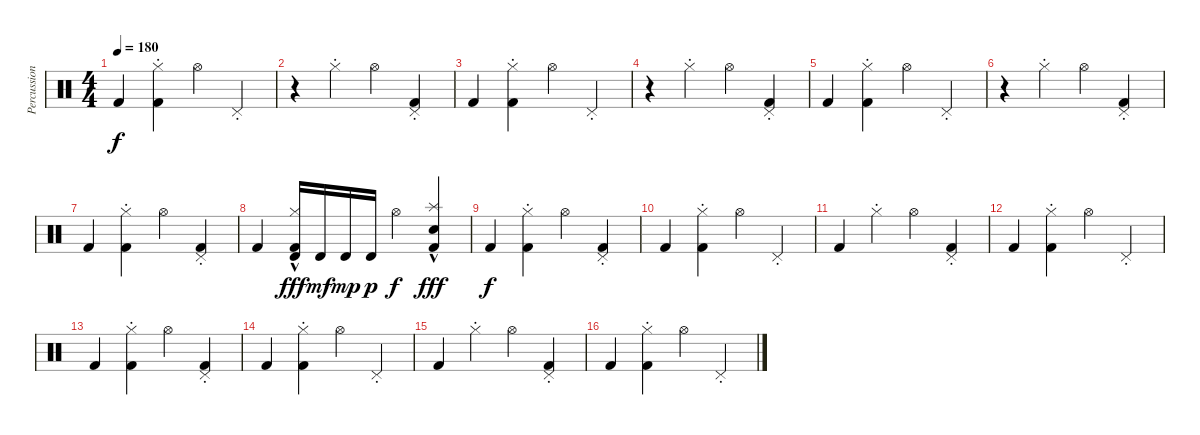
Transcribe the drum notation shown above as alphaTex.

\track ("Percussion" "Percussion") {instrument percussion}
\staff {score}
\articulation defaults
\ts (4 4)
\tempo 180
\clef neutral
\ks c "Kick (hit) 2".4{dy f}
("Hi-Hat (closed)"{st} "Kick (hit) 2").4 "Hi-Hat (open)".4 "Pedal Hi-Hat (hit)"{st}.4 |
r.4 "Hi-Hat (closed)"{st}.4 "Hi-Hat (open)".4 ("Pedal Hi-Hat (hit)"{st} "Kick (hit) 2").4 |
"Kick (hit) 2".4 ("Hi-Hat (closed)"{st} "Kick (hit) 2").4 "Hi-Hat (open)".4 "Pedal Hi-Hat (hit)"{st}.4 |
r.4 "Hi-Hat (closed)"{st}.4 "Hi-Hat (open)".4 ("Pedal Hi-Hat (hit)"{st} "Kick (hit) 2").4 |
"Kick (hit) 2".4 ("Hi-Hat (closed)"{st} "Kick (hit) 2").4 "Hi-Hat (open)".4 "Pedal Hi-Hat (hit)"{st}.4 |
r.4 "Hi-Hat (closed)"{st}.4 "Hi-Hat (open)".4 ("Pedal Hi-Hat (hit)"{st} "Kick (hit) 2").4 |
"Kick (hit) 2".4 ("Hi-Hat (closed)"{st} "Kick (hit) 2").4 "Hi-Hat (open)".4 ("Pedal Hi-Hat (hit)"{st} "Kick (hit) 2").4 |
"Kick (hit) 2".4 ("Hi-Hat (closed)" "Timbale high (hit)"{hac} "Kick (hit) 2").16{dy fff} "Timbale high (hit)".16{dy mf} "Timbale high (hit)".16{dy mp} "Timbale high (hit)".16{dy p} "Hi-Hat (open)".4{dy f} ("Splash (hit)"{hac} "Electric Snare (hit)" "Kick (hit) 2").4{dy fff} |
"Kick (hit) 2".4{dy f} ("Hi-Hat (closed)"{st} "Kick (hit) 2").4 "Hi-Hat (open)".4 ("Pedal Hi-Hat (hit)"{st} "Kick (hit) 2").4 |
"Kick (hit) 2".4 ("Hi-Hat (closed)"{st} "Kick (hit) 2").4 "Hi-Hat (open)".4 "Pedal Hi-Hat (hit)"{st}.4 |
"Kick (hit) 2".4 "Hi-Hat (closed)"{st}.4 "Hi-Hat (open)".4 ("Pedal Hi-Hat (hit)"{st} "Kick (hit) 2").4 |
"Kick (hit) 2".4 ("Hi-Hat (closed)"{st} "Kick (hit) 2").4 "Hi-Hat (open)".4 "Pedal Hi-Hat (hit)"{st}.4 |
"Kick (hit) 2".4 ("Hi-Hat (closed)"{st} "Kick (hit) 2").4 "Hi-Hat (open)".4 ("Pedal Hi-Hat (hit)"{st} "Kick (hit) 2").4 |
"Kick (hit) 2".4 ("Hi-Hat (closed)"{st} "Kick (hit) 2").4 "Hi-Hat (open)".4 "Pedal Hi-Hat (hit)"{st}.4 |
"Kick (hit) 2".4 "Hi-Hat (closed)"{st}.4 "Hi-Hat (open)".4 ("Pedal Hi-Hat (hit)"{st} "Kick (hit) 2").4 |
"Kick (hit) 2".4 ("Hi-Hat (closed)"{st} "Kick (hit) 2").4 "Hi-Hat (open)".4 "Pedal Hi-Hat (hit)"{st}.4
